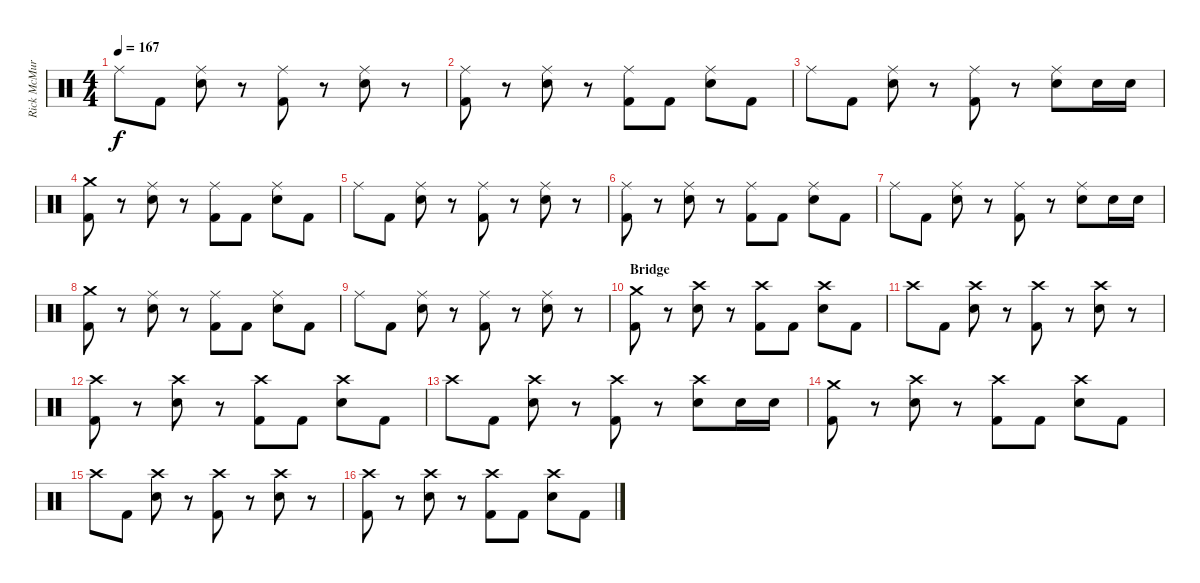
\track ("Rick McMurray" "Rick McMur") {instrument percussion}
\staff {score}
\articulation defaults
\ts (4 4)
\tempo 167
\clef neutral
\ks c "Ride (middle)".8{dy f} "Kick (hit) 2".8
("Ride (middle)" "Electric Snare (hit)").8 r.8 ("Ride (middle)" "Kick (hit) 2").8 r.8 ("Ride (middle)" "Electric Snare (hit)").8 r.8 |
("Ride (middle)" "Kick (hit) 2").8 r.8 ("Ride (middle)" "Electric Snare (hit)").8 r.8 ("Ride (middle)" "Kick (hit) 2").8 "Kick (hit) 2".8 ("Ride (middle)" "Electric Snare (hit)").8 "Kick (hit) 2".8 |
"Ride (middle)".8 "Kick (hit) 2".8 ("Ride (middle)" "Electric Snare (hit)").8 r.8 ("Ride (middle)" "Kick (hit) 2").8 r.8 ("Ride (middle)" "Electric Snare (hit)").8 "Electric Snare (hit)".16 "Electric Snare (hit)".16 |
("Crash medium (hit)" "Kick (hit) 2").8 r.8 ("Ride (middle)" "Electric Snare (hit)").8 r.8 ("Ride (middle)" "Kick (hit) 2").8 "Kick (hit) 2".8 ("Ride (middle)" "Electric Snare (hit)").8 "Kick (hit) 2".8 |
"Ride (middle)".8 "Kick (hit) 2".8 ("Ride (middle)" "Electric Snare (hit)").8 r.8 ("Ride (middle)" "Kick (hit) 2").8 r.8 ("Ride (middle)" "Electric Snare (hit)").8 r.8 |
("Ride (middle)" "Kick (hit) 2").8 r.8 ("Ride (middle)" "Electric Snare (hit)").8 r.8 ("Ride (middle)" "Kick (hit) 2").8 "Kick (hit) 2".8 ("Ride (middle)" "Electric Snare (hit)").8 "Kick (hit) 2".8 |
"Ride (middle)".8 "Kick (hit) 2".8 ("Ride (middle)" "Electric Snare (hit)").8 r.8 ("Ride (middle)" "Kick (hit) 2").8 r.8 ("Ride (middle)" "Electric Snare (hit)").8 "Electric Snare (hit)".16 "Electric Snare (hit)".16 |
("Crash medium (hit)" "Kick (hit) 2").8 r.8 ("Ride (middle)" "Electric Snare (hit)").8 r.8 ("Ride (middle)" "Kick (hit) 2").8 "Kick (hit) 2".8 ("Ride (middle)" "Electric Snare (hit)").8 "Kick (hit) 2".8 |
"Ride (middle)".8 "Kick (hit) 2".8 ("Ride (middle)" "Electric Snare (hit)").8 r.8 ("Ride (middle)" "Kick (hit) 2").8 r.8 ("Ride (middle)" "Electric Snare (hit)").8 r.8 |
\section ("" "Bridge")
("Crash medium (hit)" "Kick (hit) 2").8{volume 12} r.8 ("Crash high (hit)" "Electric Snare (hit)").8 r.8 ("Crash high (hit)" "Kick (hit) 2").8 "Kick (hit) 2".8 ("Crash high (hit)" "Electric Snare (hit)").8 "Kick (hit) 2".8 |
"Crash high (hit)".8 "Kick (hit) 2".8 ("Crash high (hit)" "Electric Snare (hit)").8 r.8 ("Crash high (hit)" "Kick (hit) 2").8 r.8 ("Crash high (hit)" "Electric Snare (hit)").8 r.8 |
("Crash high (hit)" "Kick (hit) 2").8 r.8 ("Crash high (hit)" "Electric Snare (hit)").8 r.8 ("Crash high (hit)" "Kick (hit) 2").8 "Kick (hit) 2".8 ("Crash high (hit)" "Electric Snare (hit)").8 "Kick (hit) 2".8 |
"Crash high (hit)".8 "Kick (hit) 2".8 ("Crash high (hit)" "Electric Snare (hit)").8 r.8 ("Crash high (hit)" "Kick (hit) 2").8 r.8 ("Crash high (hit)" "Electric Snare (hit)").8 "Electric Snare (hit)".16 "Electric Snare (hit)".16 |
("Crash medium (hit)" "Kick (hit) 2").8 r.8 ("Crash high (hit)" "Electric Snare (hit)").8 r.8 ("Crash high (hit)" "Kick (hit) 2").8 "Kick (hit) 2".8 ("Crash high (hit)" "Electric Snare (hit)").8 "Kick (hit) 2".8 |
"Crash high (hit)".8 "Kick (hit) 2".8 ("Crash high (hit)" "Electric Snare (hit)").8 r.8 ("Crash high (hit)" "Kick (hit) 2").8 r.8 ("Crash high (hit)" "Electric Snare (hit)").8 r.8 |
("Crash high (hit)" "Kick (hit) 2").8 r.8 ("Crash high (hit)" "Electric Snare (hit)").8 r.8 ("Crash high (hit)" "Kick (hit) 2").8 "Kick (hit) 2".8 ("Crash high (hit)" "Electric Snare (hit)").8 "Kick (hit) 2".8
